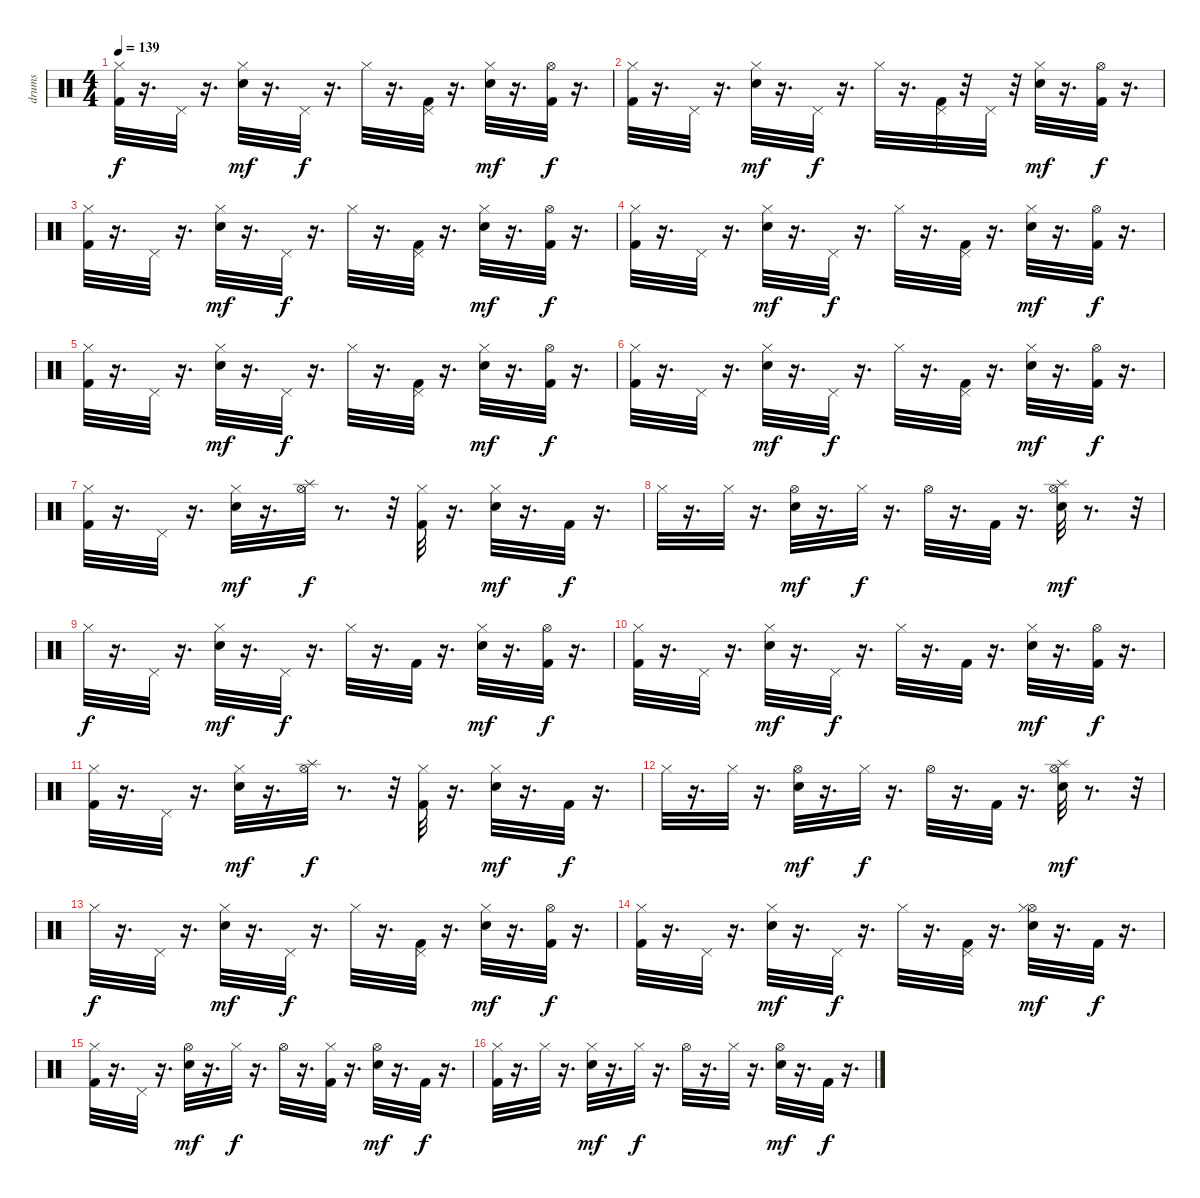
\track ("drums" "drums") {instrument percussion}
\staff {score}
\articulation defaults
\ts (4 4)
\tempo 139
\clef neutral
\ks c
("Hi-Hat (closed)" "Kick (hit) 2").32{dy f} r.16{d} "Pedal Hi-Hat (hit)".32 r.16{d} ("Hi-Hat (closed)" "Snare (hit) 2").32{dy mf} r.16{d} "Pedal Hi-Hat (hit)".32{dy f} r.16{d} "Hi-Hat (closed)".32 r.16{d} ("Kick (hit) 2" "Pedal Hi-Hat (hit)").32 r.16{d} ("Hi-Hat (closed)" "Snare (hit) 2").32{dy mf} r.16{d} ("Hi-Hat (open)" "Kick (hit) 2").32{dy f} r.16{d} |
("Hi-Hat (closed)" "Kick (hit) 2").32 r.16{d} "Pedal Hi-Hat (hit)".32 r.16{d} ("Hi-Hat (closed)" "Snare (hit) 2").32{dy mf} r.16{d} "Pedal Hi-Hat (hit)".32{dy f} r.16{d} "Hi-Hat (closed)".32 r.16{d} ("Kick (hit) 2" "Pedal Hi-Hat (hit)").32 r.32 "Pedal Hi-Hat (hit)".32 r.32 ("Snare (hit) 2" "Hi-Hat (closed)").32{dy mf} r.16{d} ("Kick (hit) 2" "Hi-Hat (open)").32{dy f} r.16{d} |
("Hi-Hat (closed)" "Kick (hit) 2").32 r.16{d} "Pedal Hi-Hat (hit)".32 r.16{d} ("Snare (hit) 2" "Hi-Hat (closed)").32{dy mf} r.16{d} "Pedal Hi-Hat (hit)".32{dy f} r.16{d} "Hi-Hat (closed)".32 r.16{d} ("Kick (hit) 2" "Pedal Hi-Hat (hit)").32 r.16{d} ("Hi-Hat (closed)" "Snare (hit) 2").32{dy mf} r.16{d} ("Hi-Hat (open)" "Kick (hit) 2").32{dy f} r.16{d} |
("Kick (hit) 2" "Hi-Hat (closed)").32 r.16{d} "Pedal Hi-Hat (hit)".32 r.16{d} ("Hi-Hat (closed)" "Snare (hit) 2").32{dy mf} r.16{d} "Pedal Hi-Hat (hit)".32{dy f} r.16{d} "Hi-Hat (closed)".32 r.16{d} ("Pedal Hi-Hat (hit)" "Kick (hit) 2").32 r.16{d} ("Snare (hit) 2" "Hi-Hat (closed)").32{dy mf} r.16{d} ("Kick (hit) 2" "Hi-Hat (open)").32{dy f} r.16{d} |
("Kick (hit) 2" "Hi-Hat (closed)").32 r.16{d} "Pedal Hi-Hat (hit)".32 r.16{d} ("Hi-Hat (closed)" "Snare (hit) 2").32{dy mf} r.16{d} "Pedal Hi-Hat (hit)".32{dy f} r.16{d} "Hi-Hat (closed)".32 r.16{d} ("Pedal Hi-Hat (hit)" "Kick (hit) 2").32 r.16{d} ("Snare (hit) 2" "Hi-Hat (closed)").32{dy mf} r.16{d} ("Kick (hit) 2" "Hi-Hat (open)").32{dy f} r.16{d} |
("Kick (hit) 2" "Hi-Hat (closed)").32 r.16{d} "Pedal Hi-Hat (hit)".32 r.16{d} ("Snare (hit) 2" "Hi-Hat (closed)").32{dy mf} r.16{d} "Pedal Hi-Hat (hit)".32{dy f} r.16{d} "Hi-Hat (closed)".32 r.16{d} ("Pedal Hi-Hat (hit)" "Kick (hit) 2").32 r.16{d} ("Hi-Hat (closed)" "Snare (hit) 2").32{dy mf} r.16{d} ("Kick (hit) 2" "Hi-Hat (open)").32{dy f} r.16{d} |
("Kick (hit) 2" "Hi-Hat (closed)").32 r.16{d} "Pedal Hi-Hat (hit)".32 r.16{d} ("Snare (hit) 2" "Hi-Hat (closed)").32{dy mf} r.16{d} ("Splash (hit)" "Hi-Hat (open)").32{dy f} r.8{d} r.32 ("Hi-Hat (closed)" "Kick (hit) 2").32 r.16{d} ("Snare (hit) 2" "Hi-Hat (closed)").32{dy mf} r.16{d} "Kick (hit) 2".32{dy f} r.16{d} |
"Hi-Hat (closed)".32 r.16{d} "Hi-Hat (closed)".32 r.16{d} ("Snare (hit) 2" "Hi-Hat (open)").32{dy mf} r.16{d} "Hi-Hat (closed)".32{dy f} r.16{d} "Hi-Hat (open)".32 r.16{d} "Kick (hit) 2".32 r.16{d} ("Snare (hit) 2" "Hi-Hat (open)" "Splash (hit)").32{dy mf} r.8{d} r.32 |
"Hi-Hat (closed)".32{dy f} r.16{d} "Pedal Hi-Hat (hit)".32 r.16{d} ("Hi-Hat (closed)" "Snare (hit) 2").32{dy mf} r.16{d} "Pedal Hi-Hat (hit)".32{dy f} r.16{d} "Hi-Hat (closed)".32 r.16{d} "Kick (hit) 2".32 r.16{d} ("Snare (hit) 2" "Hi-Hat (closed)").32{dy mf} r.16{d} ("Kick (hit) 2" "Hi-Hat (open)").32{dy f} r.16{d} |
("Kick (hit) 2" "Hi-Hat (closed)").32 r.16{d} "Pedal Hi-Hat (hit)".32 r.16{d} ("Snare (hit) 2" "Hi-Hat (closed)").32{dy mf} r.16{d} "Pedal Hi-Hat (hit)".32{dy f} r.16{d} "Hi-Hat (closed)".32 r.16{d} "Kick (hit) 2".32 r.16{d} ("Hi-Hat (closed)" "Snare (hit) 2").32{dy mf} r.16{d} ("Hi-Hat (open)" "Kick (hit) 2").32{dy f} r.16{d} |
("Kick (hit) 2" "Hi-Hat (closed)").32 r.16{d} "Pedal Hi-Hat (hit)".32 r.16{d} ("Hi-Hat (closed)" "Snare (hit) 2").32{dy mf} r.16{d} ("Splash (hit)" "Hi-Hat (open)").32{dy f} r.8{d} r.32 ("Hi-Hat (closed)" "Kick (hit) 2").32 r.16{d} ("Snare (hit) 2" "Hi-Hat (closed)").32{dy mf} r.16{d} "Kick (hit) 2".32{dy f} r.16{d} |
"Hi-Hat (closed)".32 r.16{d} "Hi-Hat (closed)".32 r.16{d} ("Hi-Hat (open)" "Snare (hit) 2").32{dy mf} r.16{d} "Hi-Hat (closed)".32{dy f} r.16{d} "Hi-Hat (open)".32 r.16{d} "Kick (hit) 2".32 r.16{d} ("Splash (hit)" "Snare (hit) 2" "Hi-Hat (open)").32{dy mf} r.8{d} r.32 |
"Hi-Hat (closed)".32{dy f} r.16{d} "Pedal Hi-Hat (hit)".32 r.16{d} ("Snare (hit) 2" "Hi-Hat (closed)").32{dy mf} r.16{d} "Pedal Hi-Hat (hit)".32{dy f} r.16{d} "Hi-Hat (closed)".32 r.16{d} ("Kick (hit) 2" "Pedal Hi-Hat (hit)").32 r.16{d} ("Snare (hit) 2" "Hi-Hat (closed)").32{dy mf} r.16{d} ("Kick (hit) 2" "Hi-Hat (open)").32{dy f} r.16{d} |
("Hi-Hat (closed)" "Kick (hit) 2").32 r.16{d} "Pedal Hi-Hat (hit)".32 r.16{d} ("Snare (hit) 2" "Hi-Hat (closed)").32{dy mf} r.16{d} "Pedal Hi-Hat (hit)".32{dy f} r.16{d} "Hi-Hat (closed)".32 r.16{d} ("Kick (hit) 2" "Pedal Hi-Hat (hit)").32 r.16{d} ("Snare (hit) 2" "Hi-Hat (open)" "Hi-Hat (closed)").32{dy mf} r.16{d} "Kick (hit) 2".32{dy f} r.16{d} |
("Hi-Hat (closed)" "Kick (hit) 2").32 r.16{d} "Pedal Hi-Hat (hit)".32 r.16{d} ("Snare (hit) 2" "Hi-Hat (open)").32{dy mf} r.16{d} "Hi-Hat (closed)".32{dy f} r.16{d} "Hi-Hat (open)".32 r.16{d} ("Kick (hit) 2" "Hi-Hat (closed)").32 r.16{d} ("Hi-Hat (open)" "Snare (hit) 2").32{dy mf} r.16{d} "Kick (hit) 2".32{dy f} r.16{d} |
("Hi-Hat (closed)" "Kick (hit) 2").32 r.16{d} "Hi-Hat (closed)".32 r.16{d} ("Snare (hit) 2" "Hi-Hat (closed)").32{dy mf} r.16{d} "Hi-Hat (closed)".32{dy f} r.16{d} "Hi-Hat (open)".32 r.16{d} "Hi-Hat (closed)".32 r.16{d} ("Hi-Hat (open)" "Snare (hit) 2").32{dy mf} r.16{d} "Kick (hit) 2".32{dy f} r.16{d}
